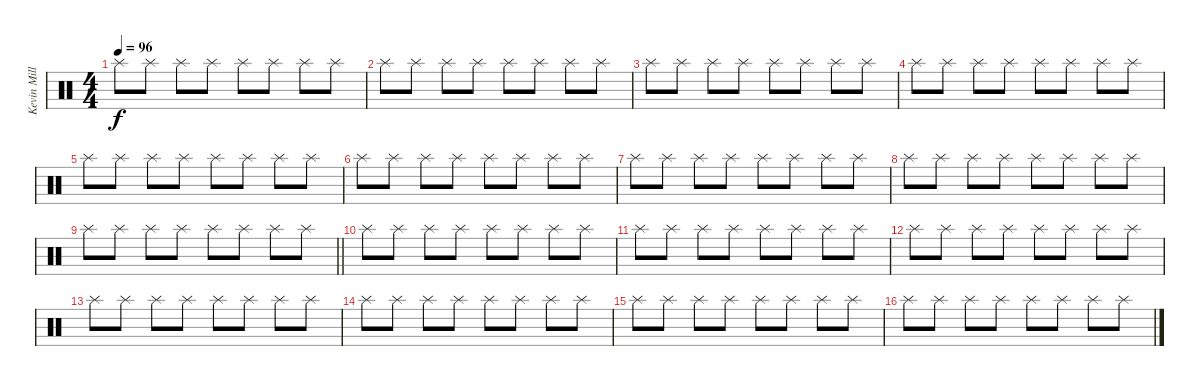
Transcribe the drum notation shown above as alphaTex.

\track ("Kevin Miller (Drums)" "Kevin Mill") {instrument percussion}
\staff {score}
\articulation defaults
\ts (4 4)
\tempo 96
\clef neutral
\ks c "Splash (hit)".8{dy f} "Splash (hit)".8 "Splash (hit)".8 "Splash (hit)".8 "Splash (hit)".8 "Splash (hit)".8 "Splash (hit)".8 "Splash (hit)".8
|
"Splash (hit)".8 "Splash (hit)".8 "Splash (hit)".8 "Splash (hit)".8 "Splash (hit)".8 "Splash (hit)".8 "Splash (hit)".8 "Splash (hit)".8 |
"Splash (hit)".8 "Splash (hit)".8 "Splash (hit)".8 "Splash (hit)".8 "Splash (hit)".8 "Splash (hit)".8 "Splash (hit)".8 "Splash (hit)".8 |
"Splash (hit)".8 "Splash (hit)".8 "Splash (hit)".8 "Splash (hit)".8 "Splash (hit)".8 "Splash (hit)".8 "Splash (hit)".8 "Splash (hit)".8 |
"Splash (hit)".8 "Splash (hit)".8 "Splash (hit)".8 "Splash (hit)".8 "Splash (hit)".8 "Splash (hit)".8 "Splash (hit)".8 "Splash (hit)".8 |
"Splash (hit)".8 "Splash (hit)".8 "Splash (hit)".8 "Splash (hit)".8 "Splash (hit)".8 "Splash (hit)".8 "Splash (hit)".8 "Splash (hit)".8 |
"Splash (hit)".8 "Splash (hit)".8 "Splash (hit)".8 "Splash (hit)".8 "Splash (hit)".8 "Splash (hit)".8 "Splash (hit)".8 "Splash (hit)".8 |
"Splash (hit)".8 "Splash (hit)".8 "Splash (hit)".8 "Splash (hit)".8 "Splash (hit)".8 "Splash (hit)".8 "Splash (hit)".8 "Splash (hit)".8 |
\barLineRight lightlight "Splash (hit)".8 "Splash (hit)".8 "Splash (hit)".8 "Splash (hit)".8 "Splash (hit)".8 "Splash (hit)".8 "Splash (hit)".8 "Splash (hit)".8
|
"Splash (hit)".8 "Splash (hit)".8 "Splash (hit)".8 "Splash (hit)".8 "Splash (hit)".8 "Splash (hit)".8 "Splash (hit)".8 "Splash (hit)".8 |
"Splash (hit)".8 "Splash (hit)".8 "Splash (hit)".8 "Splash (hit)".8 "Splash (hit)".8 "Splash (hit)".8 "Splash (hit)".8 "Splash (hit)".8 |
"Splash (hit)".8 "Splash (hit)".8 "Splash (hit)".8 "Splash (hit)".8 "Splash (hit)".8 "Splash (hit)".8 "Splash (hit)".8 "Splash (hit)".8 |
"Splash (hit)".8 "Splash (hit)".8 "Splash (hit)".8 "Splash (hit)".8 "Splash (hit)".8 "Splash (hit)".8 "Splash (hit)".8 "Splash (hit)".8 |
"Splash (hit)".8 "Splash (hit)".8 "Splash (hit)".8 "Splash (hit)".8 "Splash (hit)".8 "Splash (hit)".8 "Splash (hit)".8 "Splash (hit)".8 |
"Splash (hit)".8 "Splash (hit)".8 "Splash (hit)".8 "Splash (hit)".8 "Splash (hit)".8 "Splash (hit)".8 "Splash (hit)".8 "Splash (hit)".8 |
"Splash (hit)".8 "Splash (hit)".8 "Splash (hit)".8 "Splash (hit)".8 "Splash (hit)".8 "Splash (hit)".8 "Splash (hit)".8 "Splash (hit)".8
